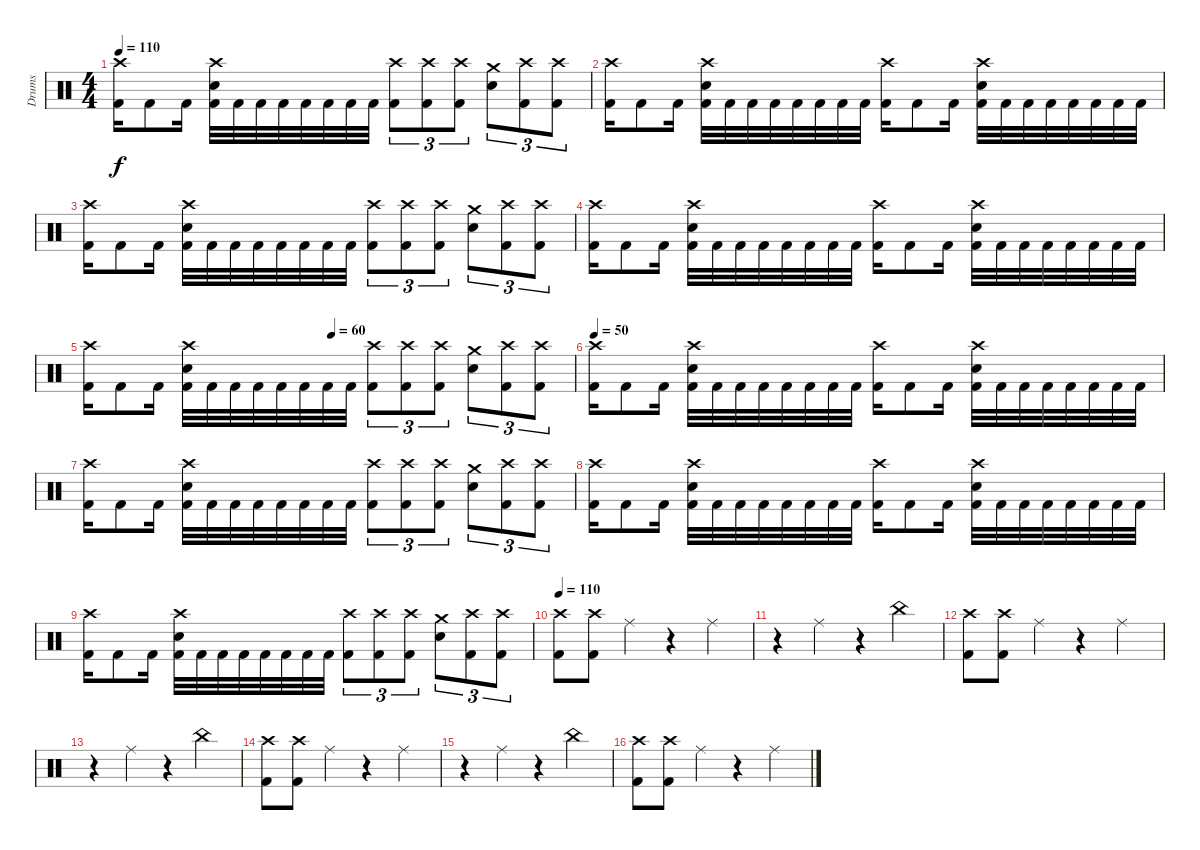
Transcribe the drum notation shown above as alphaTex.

\track ("Drums" "Drums") {instrument percussion}
\staff {score}
\articulation defaults
\ts (4 4)
\tempo 110
\clef neutral
\ks c
("Crash high (hit)" "Kick (hit) 2").16{dy f} "Kick (hit) 2".8 "Kick (hit) 2".16 ("Crash high (hit)" "Snare (hit) 2" "Kick (hit) 2").32 "Kick (hit) 2".32 "Kick (hit) 2".32 "Kick (hit) 2".32 "Kick (hit) 2".32 "Kick (hit) 2".32 "Kick (hit) 2".32 "Kick (hit) 2".32 ("Crash high (hit)" "Kick (hit) 2").8{tu (3 2)} ("Crash high (hit)" "Kick (hit) 2").8{tu (3 2)} ("Crash high (hit)" "Kick (hit) 2").8{tu (3 2)} ("Crash medium (hit)" "Snare (hit) 2").8{tu (3 2)} ("Crash high (hit)" "Kick (hit) 2").8{tu (3 2)} ("Crash high (hit)" "Kick (hit) 2").8{tu (3 2)} |
("Crash high (hit)" "Kick (hit) 2").16 "Kick (hit) 2".8 "Kick (hit) 2".16 ("Crash high (hit)" "Snare (hit) 2" "Kick (hit) 2").32 "Kick (hit) 2".32 "Kick (hit) 2".32 "Kick (hit) 2".32 "Kick (hit) 2".32 "Kick (hit) 2".32 "Kick (hit) 2".32 "Kick (hit) 2".32 ("Crash high (hit)" "Kick (hit) 2").16 "Kick (hit) 2".8 "Kick (hit) 2".16 ("Crash high (hit)" "Snare (hit) 2" "Kick (hit) 2").32 "Kick (hit) 2".32 "Kick (hit) 2".32 "Kick (hit) 2".32 "Kick (hit) 2".32 "Kick (hit) 2".32 "Kick (hit) 2".32 "Kick (hit) 2".32 |
("Crash high (hit)" "Kick (hit) 2").16 "Kick (hit) 2".8 "Kick (hit) 2".16 ("Crash high (hit)" "Snare (hit) 2" "Kick (hit) 2").32 "Kick (hit) 2".32 "Kick (hit) 2".32 "Kick (hit) 2".32 "Kick (hit) 2".32 "Kick (hit) 2".32 "Kick (hit) 2".32 "Kick (hit) 2".32 ("Crash high (hit)" "Kick (hit) 2").8{tu (3 2)} ("Crash high (hit)" "Kick (hit) 2").8{tu (3 2)} ("Crash high (hit)" "Kick (hit) 2").8{tu (3 2)} ("Crash medium (hit)" "Snare (hit) 2").8{tu (3 2)} ("Crash high (hit)" "Kick (hit) 2").8{tu (3 2)} ("Crash high (hit)" "Kick (hit) 2").8{tu (3 2)} |
("Crash high (hit)" "Kick (hit) 2").16 "Kick (hit) 2".8 "Kick (hit) 2".16 ("Crash high (hit)" "Snare (hit) 2" "Kick (hit) 2").32 "Kick (hit) 2".32 "Kick (hit) 2".32 "Kick (hit) 2".32 "Kick (hit) 2".32 "Kick (hit) 2".32 "Kick (hit) 2".32 "Kick (hit) 2".32 ("Crash high (hit)" "Kick (hit) 2").16 "Kick (hit) 2".8 "Kick (hit) 2".16 ("Crash high (hit)" "Snare (hit) 2" "Kick (hit) 2").32 "Kick (hit) 2".32 "Kick (hit) 2".32 "Kick (hit) 2".32 "Kick (hit) 2".32 "Kick (hit) 2".32 "Kick (hit) 2".32 "Kick (hit) 2".32 |
\tempo (60 0.5)
("Crash high (hit)" "Kick (hit) 2").16 "Kick (hit) 2".8 "Kick (hit) 2".16 ("Crash high (hit)" "Snare (hit) 2" "Kick (hit) 2").32 "Kick (hit) 2".32 "Kick (hit) 2".32 "Kick (hit) 2".32 "Kick (hit) 2".32 "Kick (hit) 2".32 "Kick (hit) 2".32 "Kick (hit) 2".32 ("Crash high (hit)" "Kick (hit) 2").8{tu (3 2)} ("Crash high (hit)" "Kick (hit) 2").8{tu (3 2)} ("Crash high (hit)" "Kick (hit) 2").8{tu (3 2)} ("Crash medium (hit)" "Snare (hit) 2").8{tu (3 2)} ("Crash high (hit)" "Kick (hit) 2").8{tu (3 2)} ("Crash high (hit)" "Kick (hit) 2").8{tu (3 2)} |
\tempo 50
("Crash high (hit)" "Kick (hit) 2").16 "Kick (hit) 2".8 "Kick (hit) 2".16 ("Crash high (hit)" "Snare (hit) 2" "Kick (hit) 2").32 "Kick (hit) 2".32 "Kick (hit) 2".32 "Kick (hit) 2".32 "Kick (hit) 2".32 "Kick (hit) 2".32 "Kick (hit) 2".32 "Kick (hit) 2".32 ("Crash high (hit)" "Kick (hit) 2").16 "Kick (hit) 2".8 "Kick (hit) 2".16 ("Crash high (hit)" "Snare (hit) 2" "Kick (hit) 2").32 "Kick (hit) 2".32 "Kick (hit) 2".32 "Kick (hit) 2".32 "Kick (hit) 2".32 "Kick (hit) 2".32 "Kick (hit) 2".32 "Kick (hit) 2".32 |
("Crash high (hit)" "Kick (hit) 2").16 "Kick (hit) 2".8 "Kick (hit) 2".16 ("Crash high (hit)" "Snare (hit) 2" "Kick (hit) 2").32 "Kick (hit) 2".32 "Kick (hit) 2".32 "Kick (hit) 2".32 "Kick (hit) 2".32 "Kick (hit) 2".32 "Kick (hit) 2".32 "Kick (hit) 2".32 ("Crash high (hit)" "Kick (hit) 2").8{tu (3 2)} ("Crash high (hit)" "Kick (hit) 2").8{tu (3 2)} ("Crash high (hit)" "Kick (hit) 2").8{tu (3 2)} ("Crash medium (hit)" "Snare (hit) 2").8{tu (3 2)} ("Crash high (hit)" "Kick (hit) 2").8{tu (3 2)} ("Crash high (hit)" "Kick (hit) 2").8{tu (3 2)} |
("Crash high (hit)" "Kick (hit) 2").16 "Kick (hit) 2".8 "Kick (hit) 2".16 ("Crash high (hit)" "Snare (hit) 2" "Kick (hit) 2").32 "Kick (hit) 2".32 "Kick (hit) 2".32 "Kick (hit) 2".32 "Kick (hit) 2".32 "Kick (hit) 2".32 "Kick (hit) 2".32 "Kick (hit) 2".32 ("Crash high (hit)" "Kick (hit) 2").16 "Kick (hit) 2".8 "Kick (hit) 2".16 ("Crash high (hit)" "Snare (hit) 2" "Kick (hit) 2").32 "Kick (hit) 2".32 "Kick (hit) 2".32 "Kick (hit) 2".32 "Kick (hit) 2".32 "Kick (hit) 2".32 "Kick (hit) 2".32 "Kick (hit) 2".32 |
("Crash high (hit)" "Kick (hit) 2").16 "Kick (hit) 2".8 "Kick (hit) 2".16 ("Crash high (hit)" "Snare (hit) 2" "Kick (hit) 2").32 "Kick (hit) 2".32 "Kick (hit) 2".32 "Kick (hit) 2".32 "Kick (hit) 2".32 "Kick (hit) 2".32 "Kick (hit) 2".32 "Kick (hit) 2".32 ("Crash high (hit)" "Kick (hit) 2").8{tu (3 2)} ("Crash high (hit)" "Kick (hit) 2").8{tu (3 2)} ("Crash high (hit)" "Kick (hit) 2").8{tu (3 2)} ("Crash medium (hit)" "Snare (hit) 2").8{tu (3 2)} ("Crash high (hit)" "Kick (hit) 2").8{tu (3 2)} ("Crash high (hit)" "Kick (hit) 2").8{tu (3 2)} |
\tempo 110
("Crash high (hit)" "Kick (hit) 2").8 ("Crash high (hit)" "Kick (hit) 2").8 "Ride (middle)".4 r.4 "Ride (middle)".4 |
r.4 "Ride (middle)".4 r.4 "China (hit)".4 |
("Crash high (hit)" "Kick (hit) 2").8 ("Crash high (hit)" "Kick (hit) 2").8 "Ride (middle)".4 r.4 "Ride (middle)".4 |
r.4 "Ride (middle)".4 r.4 "China (hit)".4 |
("Crash high (hit)" "Kick (hit) 2").8 ("Crash high (hit)" "Kick (hit) 2").8 "Ride (middle)".4 r.4 "Ride (middle)".4 |
r.4 "Ride (middle)".4 r.4 "China (hit)".4 |
("Crash high (hit)" "Kick (hit) 2").8 ("Crash high (hit)" "Kick (hit) 2").8 "Ride (middle)".4 r.4 "Ride (middle)".4
